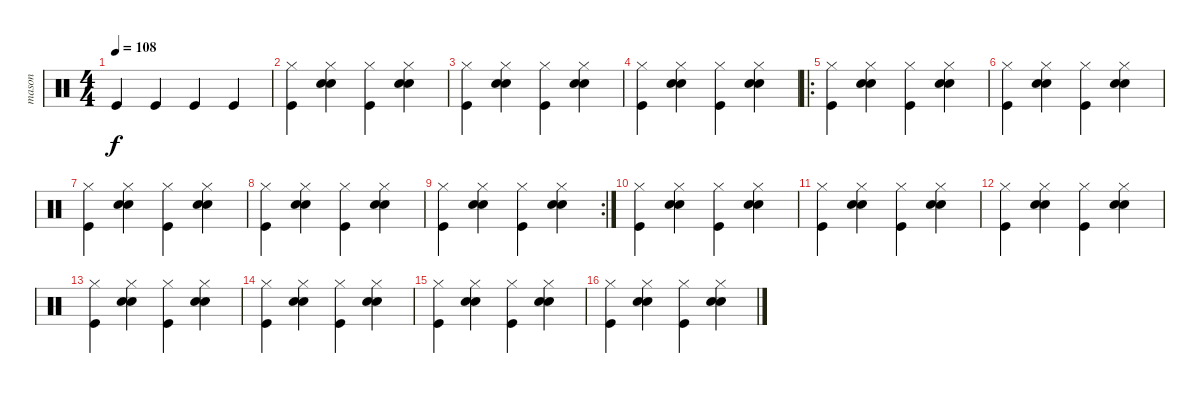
\track ("mason" "mason") {instrument percussion}
\staff {score}
\articulation defaults
\ts (4 4)
\tempo 108
\clef neutral
\ks c "Kick (hit)".4{dy f} "Kick (hit)".4 "Kick (hit)".4 "Kick (hit)".4
|
("Kick (hit)" "Hi-Hat (closed)").4 ("Snare (hit) 2" "Snare (hit) 2" "Hi-Hat (closed)").4 ("Kick (hit)" "Hi-Hat (closed)").4 ("Snare (hit) 2" "Snare (hit) 2" "Hi-Hat (closed)").4 |
("Kick (hit)" "Hi-Hat (closed)").4 ("Snare (hit) 2" "Snare (hit) 2" "Hi-Hat (closed)").4 ("Kick (hit)" "Hi-Hat (closed)").4 ("Snare (hit) 2" "Snare (hit) 2" "Hi-Hat (closed)").4 |
("Kick (hit)" "Hi-Hat (closed)").4 ("Snare (hit) 2" "Snare (hit) 2" "Hi-Hat (closed)").4 ("Kick (hit)" "Hi-Hat (closed)").4 ("Snare (hit) 2" "Snare (hit) 2" "Hi-Hat (closed)").4 |
\ro
("Kick (hit)" "Hi-Hat (closed)").4 ("Snare (hit) 2" "Snare (hit) 2" "Hi-Hat (closed)").4 ("Kick (hit)" "Hi-Hat (closed)").4 ("Snare (hit) 2" "Snare (hit) 2" "Hi-Hat (closed)").4 |
("Kick (hit)" "Hi-Hat (closed)").4 ("Snare (hit) 2" "Snare (hit) 2" "Hi-Hat (closed)").4 ("Kick (hit)" "Hi-Hat (closed)").4 ("Snare (hit) 2" "Snare (hit) 2" "Hi-Hat (closed)").4 |
("Kick (hit)" "Hi-Hat (closed)").4 ("Snare (hit) 2" "Snare (hit) 2" "Hi-Hat (closed)").4 ("Kick (hit)" "Hi-Hat (closed)").4 ("Snare (hit) 2" "Snare (hit) 2" "Hi-Hat (closed)").4 |
("Kick (hit)" "Hi-Hat (closed)").4 ("Snare (hit) 2" "Snare (hit) 2" "Hi-Hat (closed)").4 ("Kick (hit)" "Hi-Hat (closed)").4 ("Snare (hit) 2" "Snare (hit) 2" "Hi-Hat (closed)").4 |
\rc 2
("Kick (hit)" "Hi-Hat (closed)").4 ("Snare (hit) 2" "Snare (hit) 2" "Hi-Hat (closed)").4 ("Kick (hit)" "Hi-Hat (closed)").4 ("Snare (hit) 2" "Snare (hit) 2" "Hi-Hat (closed)").4 |
("Kick (hit)" "Hi-Hat (closed)").4 ("Snare (hit) 2" "Snare (hit) 2" "Hi-Hat (closed)").4 ("Kick (hit)" "Hi-Hat (closed)").4 ("Snare (hit) 2" "Snare (hit) 2" "Hi-Hat (closed)").4 |
("Kick (hit)" "Hi-Hat (closed)").4 ("Snare (hit) 2" "Snare (hit) 2" "Hi-Hat (closed)").4 ("Kick (hit)" "Hi-Hat (closed)").4 ("Snare (hit) 2" "Snare (hit) 2" "Hi-Hat (closed)").4 |
("Kick (hit)" "Hi-Hat (closed)").4 ("Snare (hit) 2" "Snare (hit) 2" "Hi-Hat (closed)").4 ("Kick (hit)" "Hi-Hat (closed)").4 ("Snare (hit) 2" "Snare (hit) 2" "Hi-Hat (closed)").4 |
("Kick (hit)" "Hi-Hat (closed)").4 ("Snare (hit) 2" "Snare (hit) 2" "Hi-Hat (closed)").4 ("Kick (hit)" "Hi-Hat (closed)").4 ("Snare (hit) 2" "Snare (hit) 2" "Hi-Hat (closed)").4 |
("Kick (hit)" "Hi-Hat (closed)").4 ("Snare (hit) 2" "Snare (hit) 2" "Hi-Hat (closed)").4 ("Kick (hit)" "Hi-Hat (closed)").4 ("Snare (hit) 2" "Snare (hit) 2" "Hi-Hat (closed)").4 |
("Kick (hit)" "Hi-Hat (closed)").4 ("Snare (hit) 2" "Snare (hit) 2" "Hi-Hat (closed)").4 ("Kick (hit)" "Hi-Hat (closed)").4 ("Snare (hit) 2" "Snare (hit) 2" "Hi-Hat (closed)").4 |
("Kick (hit)" "Hi-Hat (closed)").4 ("Snare (hit) 2" "Snare (hit) 2" "Hi-Hat (closed)").4 ("Kick (hit)" "Hi-Hat (closed)").4 ("Snare (hit) 2" "Snare (hit) 2" "Hi-Hat (closed)").4
